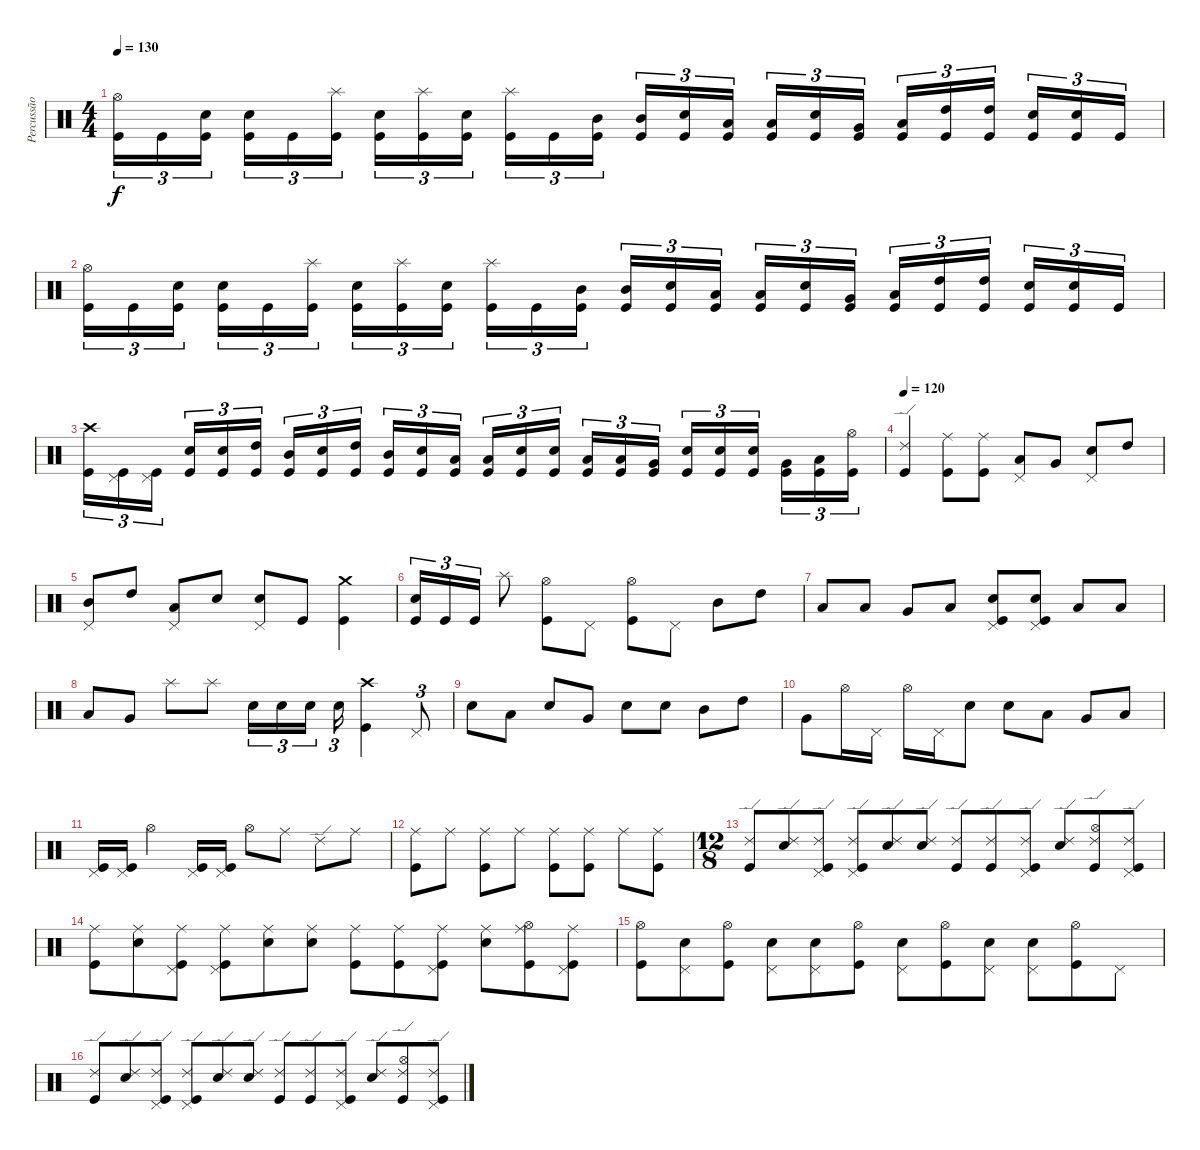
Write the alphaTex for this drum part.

\track ("Percussão" "Percussão") {instrument percussion}
\staff {score}
\articulation defaults
\ts (4 4)
\tempo 130
\clef neutral
\ks c
("Kick (hit)" "Hi-Hat (open)").16{tu (3 2) dy f} "Kick (hit)".16{tu (3 2)} ("Kick (hit)" "Snare (hit) 2").16{tu (3 2)} ("Kick (hit)" "Snare (hit) 2").16{tu (3 2)} "Kick (hit)".16{tu (3 2)} ("Kick (hit)" "Splash (hit)").16{tu (3 2)} ("Kick (hit)" "Snare (hit) 2").16{tu (3 2)} ("Kick (hit)" "Splash (hit)").16{tu (3 2)} ("Kick (hit)" "Snare (hit) 2").16{tu (3 2)} ("Kick (hit)" "Splash (hit)").16{tu (3 2)} "Kick (hit)".16{tu (3 2)} ("Kick (hit)" "Mid Tom (hit)").16{tu (3 2)} ("Kick (hit)" "Mid Tom (hit)").16{tu (3 2)} ("Kick (hit)" "Snare (hit) 2").16{tu (3 2)} ("Kick (hit)" "Low Tom (hit)").16{tu (3 2)} ("Kick (hit)" "Low Tom (hit)").16{tu (3 2)} ("Kick (hit)" "Snare (hit) 2").16{tu (3 2)} ("Kick (hit)" "Very Low Tom (hit)").16{tu (3 2)} ("Kick (hit)" "Low Tom (hit)").16{tu (3 2)} ("Kick (hit)" "High Tom (hit)").16{tu (3 2)} ("Kick (hit)" "High Tom (hit)").16{tu (3 2)} ("Kick (hit)" "Snare (hit) 2").16{tu (3 2)} ("Kick (hit)" "Snare (hit) 2").16{tu (3 2)} "Kick (hit)".16{tu (3 2)} |
("Kick (hit)" "Hi-Hat (open)").16{tu (3 2)} "Kick (hit)".16{tu (3 2)} ("Kick (hit)" "Snare (hit) 2").16{tu (3 2)} ("Kick (hit)" "Snare (hit) 2").16{tu (3 2)} "Kick (hit)".16{tu (3 2)} ("Kick (hit)" "Splash (hit)").16{tu (3 2)} ("Kick (hit)" "Snare (hit) 2").16{tu (3 2)} ("Kick (hit)" "Splash (hit)").16{tu (3 2)} ("Kick (hit)" "Snare (hit) 2").16{tu (3 2)} ("Kick (hit)" "Splash (hit)").16{tu (3 2)} "Kick (hit)".16{tu (3 2)} ("Kick (hit)" "Mid Tom (hit)").16{tu (3 2)} ("Kick (hit)" "Mid Tom (hit)").16{tu (3 2)} ("Kick (hit)" "Snare (hit) 2").16{tu (3 2)} ("Kick (hit)" "Low Tom (hit)").16{tu (3 2)} ("Kick (hit)" "Low Tom (hit)").16{tu (3 2)} ("Kick (hit)" "Snare (hit) 2").16{tu (3 2)} ("Kick (hit)" "Very Low Tom (hit)").16{tu (3 2)} ("Kick (hit)" "Low Tom (hit)").16{tu (3 2)} ("Kick (hit)" "High Tom (hit)").16{tu (3 2)} ("Kick (hit)" "High Tom (hit)").16{tu (3 2)} ("Kick (hit)" "Snare (hit) 2").16{tu (3 2)} ("Kick (hit)" "Snare (hit) 2").16{tu (3 2)} "Kick (hit)".16{tu (3 2)} |
("Kick (hit)" "Crash high (hit)").16{tu (3 2)} ("Kick (hit)" "Pedal Hi-Hat (hit)").16{tu (3 2)} ("Kick (hit)" "Pedal Hi-Hat (hit)").16{tu (3 2)} ("Kick (hit)" "Snare (hit) 2").16{tu (3 2)} ("Kick (hit)" "Snare (hit) 2").16{tu (3 2)} ("Kick (hit)" "High Tom (hit)").16{tu (3 2)} ("Kick (hit)" "Mid Tom (hit)").16{tu (3 2)} ("Kick (hit)" "Snare (hit) 2").16{tu (3 2)} ("Kick (hit)" "High Tom (hit)").16{tu (3 2)} ("Kick (hit)" "Mid Tom (hit)").16{tu (3 2)} ("Kick (hit)" "Snare (hit) 2").16{tu (3 2)} ("Kick (hit)" "Low Tom (hit)").16{tu (3 2)} ("Kick (hit)" "Low Tom (hit)").16{tu (3 2)} ("Kick (hit)" "Snare (hit) 2").16{tu (3 2)} ("Kick (hit)" "Snare (hit) 2").16{tu (3 2)} ("Kick (hit)" "Low Floor Tom (hit)").16{tu (3 2)} ("Kick (hit)" "Low Tom (hit)").16{tu (3 2)} ("Kick (hit)" "Very Low Tom (hit)").16{tu (3 2)} ("Kick (hit)" "Snare (hit) 2").16{tu (3 2)} ("Kick (hit)" "Snare (hit) 2").16{tu (3 2)} ("Kick (hit)" "Snare (hit) 2").16{tu (3 2)} ("Kick (hit)" "Very Low Tom (hit)").16{tu (3 2)} ("Kick (hit)" "Low Tom (hit)").16{tu (3 2)} ("Kick (hit)" "Hi-Hat (open)").16{tu (3 2)} |
\tempo 120
("Kick (hit)" "Ride (edge) 2").4 ("Kick (hit)" "Ride (middle)").8 ("Kick (hit)" "Ride (middle)").8 ("Low Tom (hit)" "Pedal Hi-Hat (hit)").8 "Very Low Tom (hit)".8 ("Snare (hit) 2" "Pedal Hi-Hat (hit)").8 "High Tom (hit)".8 |
("Mid Tom (hit)" "Pedal Hi-Hat (hit)").8 "High Tom (hit)".8 ("Low Floor Tom (hit)" "Pedal Hi-Hat (hit)").8 "Snare (hit) 2".8 ("Snare (hit) 2" "Pedal Hi-Hat (hit)").8 "Kick (hit)".8 ("Kick (hit)" "Crash medium (hit)").4 |
("Kick (hit)" "Snare (hit) 2").16{tu (3 2)} "Kick (hit)".16{tu (3 2)} "Kick (hit)".16{tu (3 2)} "Splash (hit)".8 ("Kick (hit)" "Hi-Hat (open)").8 "Pedal Hi-Hat (hit)".8 ("Kick (hit)" "Hi-Hat (open)").8 "Pedal Hi-Hat (hit)".8 "Mid Tom (hit)".8 "High Tom (hit)".8 |
"Low Floor Tom (hit)".8 "Low Floor Tom (hit)".8 "Very Low Tom (hit)".8 "Low Tom (hit)".8 ("Kick (hit)" "Snare (hit) 2" "Pedal Hi-Hat (hit)").8 ("Kick (hit)" "Snare (hit) 2" "Pedal Hi-Hat (hit)").8 "Low Tom (hit)".8 "Low Floor Tom (hit)".8 |
"Low Tom (hit)".8 "Very Low Tom (hit)".8 "Splash (hit)".8 "Splash (hit)".8 "Snare (hit) 2".16{tu (3 2)} "Snare (hit) 2".16{tu (3 2)} "Snare (hit) 2".16{tu (3 2)} "Snare (hit) 2".16{tu (3 2)} ("Kick (hit)" "Crash high (hit)").4 "Pedal Hi-Hat (hit)".8{tu (3 2)} |
"Snare (hit) 2".8 "Low Tom (hit)".8 "Snare (hit) 2".8 "Very Low Tom (hit)".8 "Snare (hit) 2".8 "Snare (hit) 2".8 "Mid Tom (hit)".8 "High Tom (hit)".8 |
"Very Low Tom (hit)".8 "Hi-Hat (open)".16 "Pedal Hi-Hat (hit)".16 "Hi-Hat (open)".16 "Pedal Hi-Hat (hit)".16 "Snare (hit) 2".8 "Snare (hit) 2".8 "Low Tom (hit)".8 "Very Low Tom (hit)".8 "Low Floor Tom (hit)".8 |
("Kick (hit)" "Pedal Hi-Hat (hit)").16 ("Kick (hit)" "Pedal Hi-Hat (hit)").16 "Hi-Hat (open)".4 ("Kick (hit)" "Pedal Hi-Hat (hit)").16 ("Kick (hit)" "Pedal Hi-Hat (hit)").16 "Hi-Hat (open)".8 "Ride (middle)".8 "Ride (edge) 2".8 "Ride (middle)".8 |
("Kick (hit)" "Ride (middle)").8 "Ride (middle)".8 ("Kick (hit)" "Ride (middle)").8 "Ride (middle)".8 ("Kick (hit)" "Ride (middle)").8 ("Kick (hit)" "Ride (middle)").8 "Ride (middle)".8 ("Kick (hit)" "Ride (middle)").8 |
\ts (12 8)
("Kick (hit)" "Ride (edge) 2").8 ("Ride (edge) 2" "Snare (hit) 2").8 ("Kick (hit)" "Ride (edge) 2" "Pedal Hi-Hat (hit)").8 ("Kick (hit)" "Ride (edge) 2" "Pedal Hi-Hat (hit)").8 ("Ride (edge) 2" "Snare (hit) 2").8 ("Ride (edge) 2" "Snare (hit) 2").8 ("Kick (hit)" "Ride (edge) 2").8 ("Kick (hit)" "Ride (edge) 2").8 ("Kick (hit)" "Ride (edge) 2" "Pedal Hi-Hat (hit)").8 ("Ride (edge) 2" "Snare (hit) 2").8 ("Kick (hit)" "Ride (edge) 2" "Hi-Hat (open)").8 ("Kick (hit)" "Ride (edge) 2" "Pedal Hi-Hat (hit)").8 |
("Kick (hit)" "Ride (middle)").8 ("Ride (middle)" "Snare (hit) 2").8 ("Kick (hit)" "Ride (middle)" "Pedal Hi-Hat (hit)").8 ("Kick (hit)" "Ride (middle)" "Pedal Hi-Hat (hit)").8 ("Ride (middle)" "Snare (hit) 2").8 ("Ride (middle)" "Snare (hit) 2").8 ("Kick (hit)" "Ride (middle)").8 ("Kick (hit)" "Ride (middle)").8 ("Kick (hit)" "Ride (middle)" "Pedal Hi-Hat (hit)").8 ("Ride (middle)" "Snare (hit) 2").8 ("Kick (hit)" "Ride (middle)" "Hi-Hat (open)").8 ("Kick (hit)" "Ride (middle)" "Pedal Hi-Hat (hit)").8 |
("Kick (hit)" "Hi-Hat (open)").8 ("Pedal Hi-Hat (hit)" "Snare (hit) 2").8 ("Kick (hit)" "Hi-Hat (open)").8 ("Pedal Hi-Hat (hit)" "Snare (hit) 2").8 ("Pedal Hi-Hat (hit)" "Snare (hit) 2").8 ("Kick (hit)" "Hi-Hat (open)").8 ("Pedal Hi-Hat (hit)" "Snare (hit) 2").8 ("Kick (hit)" "Hi-Hat (open)").8 ("Pedal Hi-Hat (hit)" "Snare (hit) 2").8 ("Pedal Hi-Hat (hit)" "Snare (hit) 2").8 ("Kick (hit)" "Hi-Hat (open)").8 "Pedal Hi-Hat (hit)".8 |
("Kick (hit)" "Ride (edge) 2").8 ("Ride (edge) 2" "Snare (hit) 2").8 ("Kick (hit)" "Ride (edge) 2" "Pedal Hi-Hat (hit)").8 ("Kick (hit)" "Ride (edge) 2" "Pedal Hi-Hat (hit)").8 ("Ride (edge) 2" "Snare (hit) 2").8 ("Ride (edge) 2" "Snare (hit) 2").8 ("Kick (hit)" "Ride (edge) 2").8 ("Kick (hit)" "Ride (edge) 2").8 ("Kick (hit)" "Ride (edge) 2" "Pedal Hi-Hat (hit)").8 ("Ride (edge) 2" "Snare (hit) 2").8 ("Kick (hit)" "Ride (edge) 2" "Hi-Hat (open)").8 ("Kick (hit)" "Ride (edge) 2" "Pedal Hi-Hat (hit)").8
